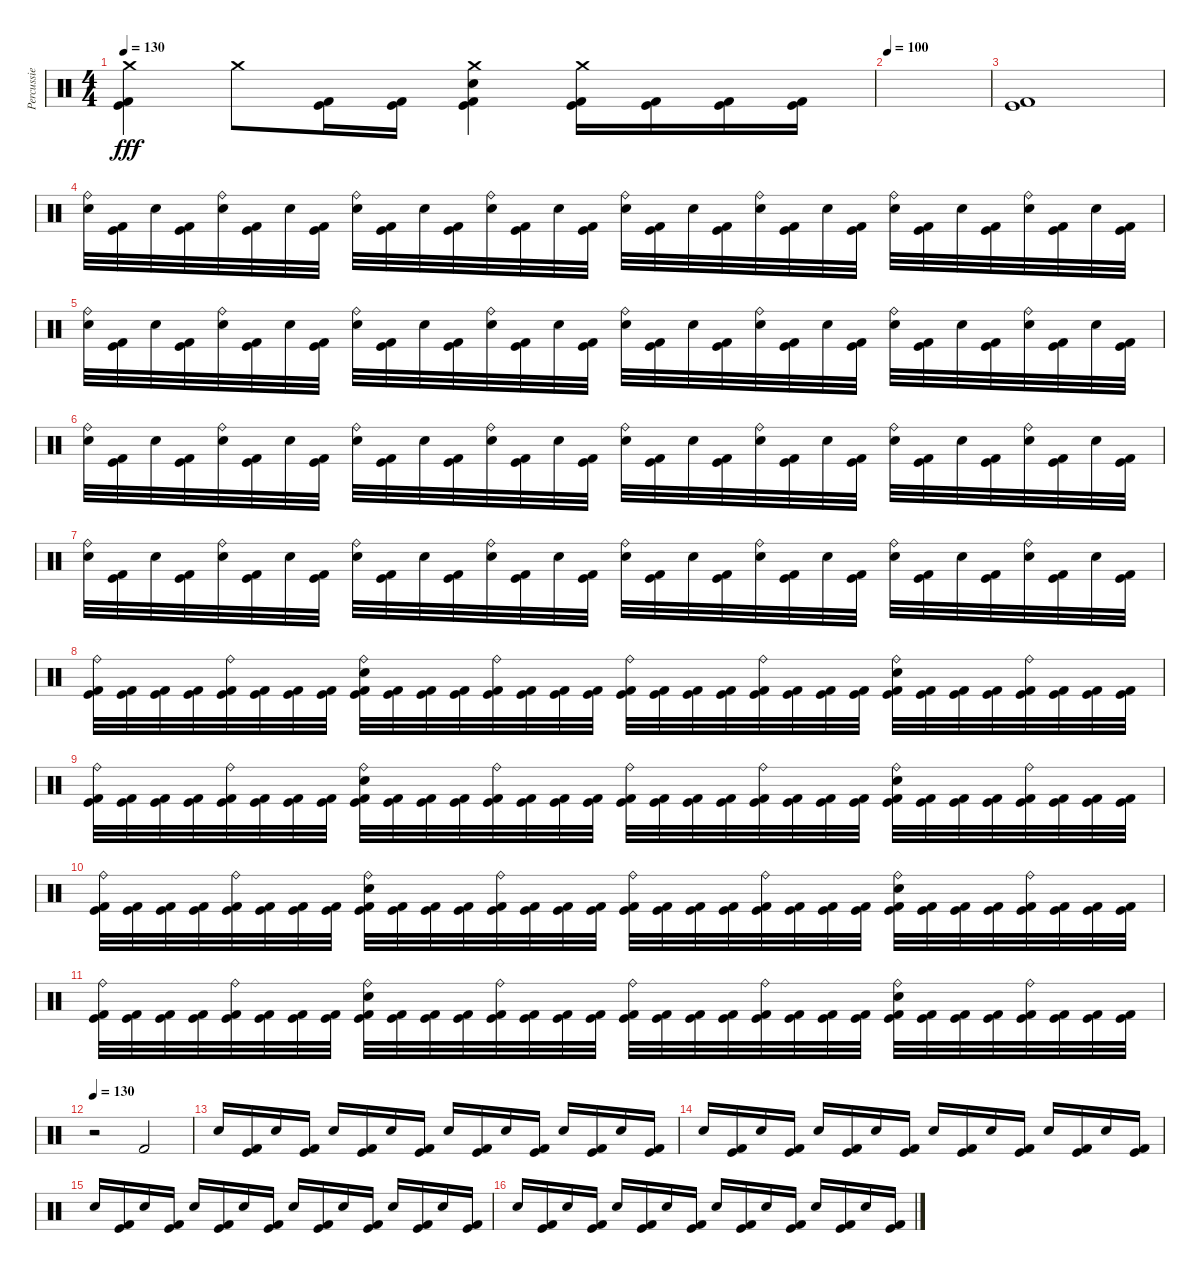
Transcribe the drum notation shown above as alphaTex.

\track ("Percussie" "Percussie") {instrument percussion}
\staff {score}
\articulation defaults
\ts (4 4)
\tempo 130
\clef neutral
\ks c
("Crash medium (hit)" "Kick (hit)" "Kick (hit) 2").4{dy fff} "Crash medium (hit)".8 ("Kick (hit)" "Kick (hit) 2").16 ("Kick (hit)" "Kick (hit) 2").16 ("Crash medium (hit)" "Electric Snare (hit)" "Kick (hit)" "Kick (hit) 2").4 ("Crash medium (hit)" "Kick (hit)" "Kick (hit) 2").16 ("Kick (hit)" "Kick (hit) 2").16 ("Kick (hit)" "Kick (hit) 2").16 ("Kick (hit)" "Kick (hit) 2").16 |
\tempo 100
|
("Kick (hit)" "Kick (hit) 2").1 |
("Ride (bell)" "Electric Snare (hit)").32 ("Kick (hit)" "Kick (hit) 2").32 "Electric Snare (hit)".32 ("Kick (hit)" "Kick (hit) 2").32 ("Ride (bell)" "Electric Snare (hit)").32 ("Kick (hit)" "Kick (hit) 2").32 "Electric Snare (hit)".32 ("Kick (hit)" "Kick (hit) 2").32 ("Ride (bell)" "Electric Snare (hit)").32 ("Kick (hit)" "Kick (hit) 2").32 "Electric Snare (hit)".32 ("Kick (hit)" "Kick (hit) 2").32 ("Ride (bell)" "Electric Snare (hit)").32 ("Kick (hit)" "Kick (hit) 2").32 "Electric Snare (hit)".32 ("Kick (hit)" "Kick (hit) 2").32 ("Ride (bell)" "Electric Snare (hit)").32 ("Kick (hit)" "Kick (hit) 2").32 "Electric Snare (hit)".32 ("Kick (hit)" "Kick (hit) 2").32 ("Ride (bell)" "Electric Snare (hit)").32 ("Kick (hit)" "Kick (hit) 2").32 "Electric Snare (hit)".32 ("Kick (hit)" "Kick (hit) 2").32 ("Ride (bell)" "Electric Snare (hit)").32 ("Kick (hit)" "Kick (hit) 2").32 "Electric Snare (hit)".32 ("Kick (hit)" "Kick (hit) 2").32 ("Ride (bell)" "Electric Snare (hit)").32 ("Kick (hit)" "Kick (hit) 2").32 "Electric Snare (hit)".32 ("Kick (hit)" "Kick (hit) 2").32 |
("Ride (bell)" "Electric Snare (hit)").32 ("Kick (hit)" "Kick (hit) 2").32 "Electric Snare (hit)".32 ("Kick (hit)" "Kick (hit) 2").32 ("Ride (bell)" "Electric Snare (hit)").32 ("Kick (hit)" "Kick (hit) 2").32 "Electric Snare (hit)".32 ("Kick (hit)" "Kick (hit) 2").32 ("Ride (bell)" "Electric Snare (hit)").32 ("Kick (hit)" "Kick (hit) 2").32 "Electric Snare (hit)".32 ("Kick (hit)" "Kick (hit) 2").32 ("Ride (bell)" "Electric Snare (hit)").32 ("Kick (hit)" "Kick (hit) 2").32 "Electric Snare (hit)".32 ("Kick (hit)" "Kick (hit) 2").32 ("Ride (bell)" "Electric Snare (hit)").32 ("Kick (hit)" "Kick (hit) 2").32 "Electric Snare (hit)".32 ("Kick (hit)" "Kick (hit) 2").32 ("Ride (bell)" "Electric Snare (hit)").32 ("Kick (hit)" "Kick (hit) 2").32 "Electric Snare (hit)".32 ("Kick (hit)" "Kick (hit) 2").32 ("Ride (bell)" "Electric Snare (hit)").32 ("Kick (hit)" "Kick (hit) 2").32 "Electric Snare (hit)".32 ("Kick (hit)" "Kick (hit) 2").32 ("Ride (bell)" "Electric Snare (hit)").32 ("Kick (hit)" "Kick (hit) 2").32 "Electric Snare (hit)".32 ("Kick (hit)" "Kick (hit) 2").32 |
("Ride (bell)" "Electric Snare (hit)").32 ("Kick (hit)" "Kick (hit) 2").32 "Electric Snare (hit)".32 ("Kick (hit)" "Kick (hit) 2").32 ("Ride (bell)" "Electric Snare (hit)").32 ("Kick (hit)" "Kick (hit) 2").32 "Electric Snare (hit)".32 ("Kick (hit)" "Kick (hit) 2").32 ("Ride (bell)" "Electric Snare (hit)").32 ("Kick (hit)" "Kick (hit) 2").32 "Electric Snare (hit)".32 ("Kick (hit)" "Kick (hit) 2").32 ("Ride (bell)" "Electric Snare (hit)").32 ("Kick (hit)" "Kick (hit) 2").32 "Electric Snare (hit)".32 ("Kick (hit)" "Kick (hit) 2").32 ("Ride (bell)" "Electric Snare (hit)").32 ("Kick (hit)" "Kick (hit) 2").32 "Electric Snare (hit)".32 ("Kick (hit)" "Kick (hit) 2").32 ("Ride (bell)" "Electric Snare (hit)").32 ("Kick (hit)" "Kick (hit) 2").32 "Electric Snare (hit)".32 ("Kick (hit)" "Kick (hit) 2").32 ("Ride (bell)" "Electric Snare (hit)").32 ("Kick (hit)" "Kick (hit) 2").32 "Electric Snare (hit)".32 ("Kick (hit)" "Kick (hit) 2").32 ("Ride (bell)" "Electric Snare (hit)").32 ("Kick (hit)" "Kick (hit) 2").32 "Electric Snare (hit)".32 ("Kick (hit)" "Kick (hit) 2").32 |
("Ride (bell)" "Electric Snare (hit)").32 ("Kick (hit)" "Kick (hit) 2").32 "Electric Snare (hit)".32 ("Kick (hit)" "Kick (hit) 2").32 ("Ride (bell)" "Electric Snare (hit)").32 ("Kick (hit)" "Kick (hit) 2").32 "Electric Snare (hit)".32 ("Kick (hit)" "Kick (hit) 2").32 ("Ride (bell)" "Electric Snare (hit)").32 ("Kick (hit)" "Kick (hit) 2").32 "Electric Snare (hit)".32 ("Kick (hit)" "Kick (hit) 2").32 ("Ride (bell)" "Electric Snare (hit)").32 ("Kick (hit)" "Kick (hit) 2").32 "Electric Snare (hit)".32 ("Kick (hit)" "Kick (hit) 2").32 ("Ride (bell)" "Electric Snare (hit)").32 ("Kick (hit)" "Kick (hit) 2").32 "Electric Snare (hit)".32 ("Kick (hit)" "Kick (hit) 2").32 ("Ride (bell)" "Electric Snare (hit)").32 ("Kick (hit)" "Kick (hit) 2").32 "Electric Snare (hit)".32 ("Kick (hit)" "Kick (hit) 2").32 ("Ride (bell)" "Electric Snare (hit)").32 ("Kick (hit)" "Kick (hit) 2").32 "Electric Snare (hit)".32 ("Kick (hit)" "Kick (hit) 2").32 ("Ride (bell)" "Electric Snare (hit)").32 ("Kick (hit)" "Kick (hit) 2").32 "Electric Snare (hit)".32 ("Kick (hit)" "Kick (hit) 2").32 |
("Ride (bell)" "Kick (hit)" "Kick (hit) 2").32 ("Kick (hit)" "Kick (hit) 2").32 ("Kick (hit)" "Kick (hit) 2").32 ("Kick (hit)" "Kick (hit) 2").32 ("Ride (bell)" "Kick (hit)" "Kick (hit) 2").32 ("Kick (hit)" "Kick (hit) 2").32 ("Kick (hit)" "Kick (hit) 2").32 ("Kick (hit)" "Kick (hit) 2").32 ("Ride (bell)" "Electric Snare (hit)" "Kick (hit)" "Kick (hit) 2").32 ("Kick (hit)" "Kick (hit) 2").32 ("Kick (hit)" "Kick (hit) 2").32 ("Kick (hit)" "Kick (hit) 2").32 ("Ride (bell)" "Kick (hit)" "Kick (hit) 2").32 ("Kick (hit)" "Kick (hit) 2").32 ("Kick (hit)" "Kick (hit) 2").32 ("Kick (hit)" "Kick (hit) 2").32 ("Ride (bell)" "Kick (hit)" "Kick (hit) 2").32 ("Kick (hit)" "Kick (hit) 2").32 ("Kick (hit)" "Kick (hit) 2").32 ("Kick (hit)" "Kick (hit) 2").32 ("Ride (bell)" "Kick (hit)" "Kick (hit) 2").32 ("Kick (hit)" "Kick (hit) 2").32 ("Kick (hit)" "Kick (hit) 2").32 ("Kick (hit)" "Kick (hit) 2").32 ("Ride (bell)" "Electric Snare (hit)" "Kick (hit)" "Kick (hit) 2").32 ("Kick (hit)" "Kick (hit) 2").32 ("Kick (hit)" "Kick (hit) 2").32 ("Kick (hit)" "Kick (hit) 2").32 ("Ride (bell)" "Kick (hit)" "Kick (hit) 2").32 ("Kick (hit)" "Kick (hit) 2").32 ("Kick (hit)" "Kick (hit) 2").32 ("Kick (hit)" "Kick (hit) 2").32 |
("Ride (bell)" "Kick (hit)" "Kick (hit) 2").32 ("Kick (hit)" "Kick (hit) 2").32 ("Kick (hit)" "Kick (hit) 2").32 ("Kick (hit)" "Kick (hit) 2").32 ("Ride (bell)" "Kick (hit)" "Kick (hit) 2").32 ("Kick (hit)" "Kick (hit) 2").32 ("Kick (hit)" "Kick (hit) 2").32 ("Kick (hit)" "Kick (hit) 2").32 ("Ride (bell)" "Electric Snare (hit)" "Kick (hit)" "Kick (hit) 2").32 ("Kick (hit)" "Kick (hit) 2").32 ("Kick (hit)" "Kick (hit) 2").32 ("Kick (hit)" "Kick (hit) 2").32 ("Ride (bell)" "Kick (hit)" "Kick (hit) 2").32 ("Kick (hit)" "Kick (hit) 2").32 ("Kick (hit)" "Kick (hit) 2").32 ("Kick (hit)" "Kick (hit) 2").32 ("Ride (bell)" "Kick (hit)" "Kick (hit) 2").32 ("Kick (hit)" "Kick (hit) 2").32 ("Kick (hit)" "Kick (hit) 2").32 ("Kick (hit)" "Kick (hit) 2").32 ("Ride (bell)" "Kick (hit)" "Kick (hit) 2").32 ("Kick (hit)" "Kick (hit) 2").32 ("Kick (hit)" "Kick (hit) 2").32 ("Kick (hit)" "Kick (hit) 2").32 ("Ride (bell)" "Electric Snare (hit)" "Kick (hit)" "Kick (hit) 2").32 ("Kick (hit)" "Kick (hit) 2").32 ("Kick (hit)" "Kick (hit) 2").32 ("Kick (hit)" "Kick (hit) 2").32 ("Ride (bell)" "Kick (hit)" "Kick (hit) 2").32 ("Kick (hit)" "Kick (hit) 2").32 ("Kick (hit)" "Kick (hit) 2").32 ("Kick (hit)" "Kick (hit) 2").32 |
("Ride (bell)" "Kick (hit)" "Kick (hit) 2").32 ("Kick (hit)" "Kick (hit) 2").32 ("Kick (hit)" "Kick (hit) 2").32 ("Kick (hit)" "Kick (hit) 2").32 ("Ride (bell)" "Kick (hit)" "Kick (hit) 2").32 ("Kick (hit)" "Kick (hit) 2").32 ("Kick (hit)" "Kick (hit) 2").32 ("Kick (hit)" "Kick (hit) 2").32 ("Ride (bell)" "Electric Snare (hit)" "Kick (hit)" "Kick (hit) 2").32 ("Kick (hit)" "Kick (hit) 2").32 ("Kick (hit)" "Kick (hit) 2").32 ("Kick (hit)" "Kick (hit) 2").32 ("Ride (bell)" "Kick (hit)" "Kick (hit) 2").32 ("Kick (hit)" "Kick (hit) 2").32 ("Kick (hit)" "Kick (hit) 2").32 ("Kick (hit)" "Kick (hit) 2").32 ("Ride (bell)" "Kick (hit)" "Kick (hit) 2").32 ("Kick (hit)" "Kick (hit) 2").32 ("Kick (hit)" "Kick (hit) 2").32 ("Kick (hit)" "Kick (hit) 2").32 ("Ride (bell)" "Kick (hit)" "Kick (hit) 2").32 ("Kick (hit)" "Kick (hit) 2").32 ("Kick (hit)" "Kick (hit) 2").32 ("Kick (hit)" "Kick (hit) 2").32 ("Ride (bell)" "Electric Snare (hit)" "Kick (hit)" "Kick (hit) 2").32 ("Kick (hit)" "Kick (hit) 2").32 ("Kick (hit)" "Kick (hit) 2").32 ("Kick (hit)" "Kick (hit) 2").32 ("Ride (bell)" "Kick (hit)" "Kick (hit) 2").32 ("Kick (hit)" "Kick (hit) 2").32 ("Kick (hit)" "Kick (hit) 2").32 ("Kick (hit)" "Kick (hit) 2").32 |
("Ride (bell)" "Kick (hit)" "Kick (hit) 2").32 ("Kick (hit)" "Kick (hit) 2").32 ("Kick (hit)" "Kick (hit) 2").32 ("Kick (hit)" "Kick (hit) 2").32 ("Ride (bell)" "Kick (hit)" "Kick (hit) 2").32 ("Kick (hit)" "Kick (hit) 2").32 ("Kick (hit)" "Kick (hit) 2").32 ("Kick (hit)" "Kick (hit) 2").32 ("Ride (bell)" "Electric Snare (hit)" "Kick (hit)" "Kick (hit) 2").32 ("Kick (hit)" "Kick (hit) 2").32 ("Kick (hit)" "Kick (hit) 2").32 ("Kick (hit)" "Kick (hit) 2").32 ("Ride (bell)" "Kick (hit)" "Kick (hit) 2").32 ("Kick (hit)" "Kick (hit) 2").32 ("Kick (hit)" "Kick (hit) 2").32 ("Kick (hit)" "Kick (hit) 2").32 ("Ride (bell)" "Kick (hit)" "Kick (hit) 2").32 ("Kick (hit)" "Kick (hit) 2").32 ("Kick (hit)" "Kick (hit) 2").32 ("Kick (hit)" "Kick (hit) 2").32 ("Ride (bell)" "Kick (hit)" "Kick (hit) 2").32 ("Kick (hit)" "Kick (hit) 2").32 ("Kick (hit)" "Kick (hit) 2").32 ("Kick (hit)" "Kick (hit) 2").32 ("Ride (bell)" "Electric Snare (hit)" "Kick (hit)" "Kick (hit) 2").32 ("Kick (hit)" "Kick (hit) 2").32 ("Kick (hit)" "Kick (hit) 2").32 ("Kick (hit)" "Kick (hit) 2").32 ("Ride (bell)" "Kick (hit)" "Kick (hit) 2").32 ("Kick (hit)" "Kick (hit) 2").32 ("Kick (hit)" "Kick (hit) 2").32 ("Kick (hit)" "Kick (hit) 2").32 |
\tempo 130
r.2 "Kick (hit) 2".2 |
"Electric Snare (hit)".16 ("Kick (hit)" "Kick (hit) 2").16 "Electric Snare (hit)".16 ("Kick (hit)" "Kick (hit) 2").16 "Electric Snare (hit)".16 ("Kick (hit)" "Kick (hit) 2").16 "Electric Snare (hit)".16 ("Kick (hit)" "Kick (hit) 2").16 "Electric Snare (hit)".16 ("Kick (hit)" "Kick (hit) 2").16 "Electric Snare (hit)".16 ("Kick (hit)" "Kick (hit) 2").16 "Electric Snare (hit)".16 ("Kick (hit)" "Kick (hit) 2").16 "Electric Snare (hit)".16 ("Kick (hit)" "Kick (hit) 2").16 |
"Electric Snare (hit)".16 ("Kick (hit)" "Kick (hit) 2").16 "Electric Snare (hit)".16 ("Kick (hit)" "Kick (hit) 2").16 "Electric Snare (hit)".16 ("Kick (hit)" "Kick (hit) 2").16 "Electric Snare (hit)".16 ("Kick (hit)" "Kick (hit) 2").16 "Electric Snare (hit)".16 ("Kick (hit)" "Kick (hit) 2").16 "Electric Snare (hit)".16 ("Kick (hit)" "Kick (hit) 2").16 "Electric Snare (hit)".16 ("Kick (hit)" "Kick (hit) 2").16 "Electric Snare (hit)".16 ("Kick (hit)" "Kick (hit) 2").16 |
"Electric Snare (hit)".16 ("Kick (hit)" "Kick (hit) 2").16 "Electric Snare (hit)".16 ("Kick (hit)" "Kick (hit) 2").16 "Electric Snare (hit)".16 ("Kick (hit)" "Kick (hit) 2").16 "Electric Snare (hit)".16 ("Kick (hit)" "Kick (hit) 2").16 "Electric Snare (hit)".16 ("Kick (hit)" "Kick (hit) 2").16 "Electric Snare (hit)".16 ("Kick (hit)" "Kick (hit) 2").16 "Electric Snare (hit)".16 ("Kick (hit)" "Kick (hit) 2").16 "Electric Snare (hit)".16 ("Kick (hit)" "Kick (hit) 2").16 |
"Electric Snare (hit)".16 ("Kick (hit)" "Kick (hit) 2").16 "Electric Snare (hit)".16 ("Kick (hit)" "Kick (hit) 2").16 "Electric Snare (hit)".16 ("Kick (hit)" "Kick (hit) 2").16 "Electric Snare (hit)".16 ("Kick (hit)" "Kick (hit) 2").16 "Electric Snare (hit)".16 ("Kick (hit)" "Kick (hit) 2").16 "Electric Snare (hit)".16 ("Kick (hit)" "Kick (hit) 2").16 "Electric Snare (hit)".16 ("Kick (hit)" "Kick (hit) 2").16 "Electric Snare (hit)".16 ("Kick (hit)" "Kick (hit) 2").16
